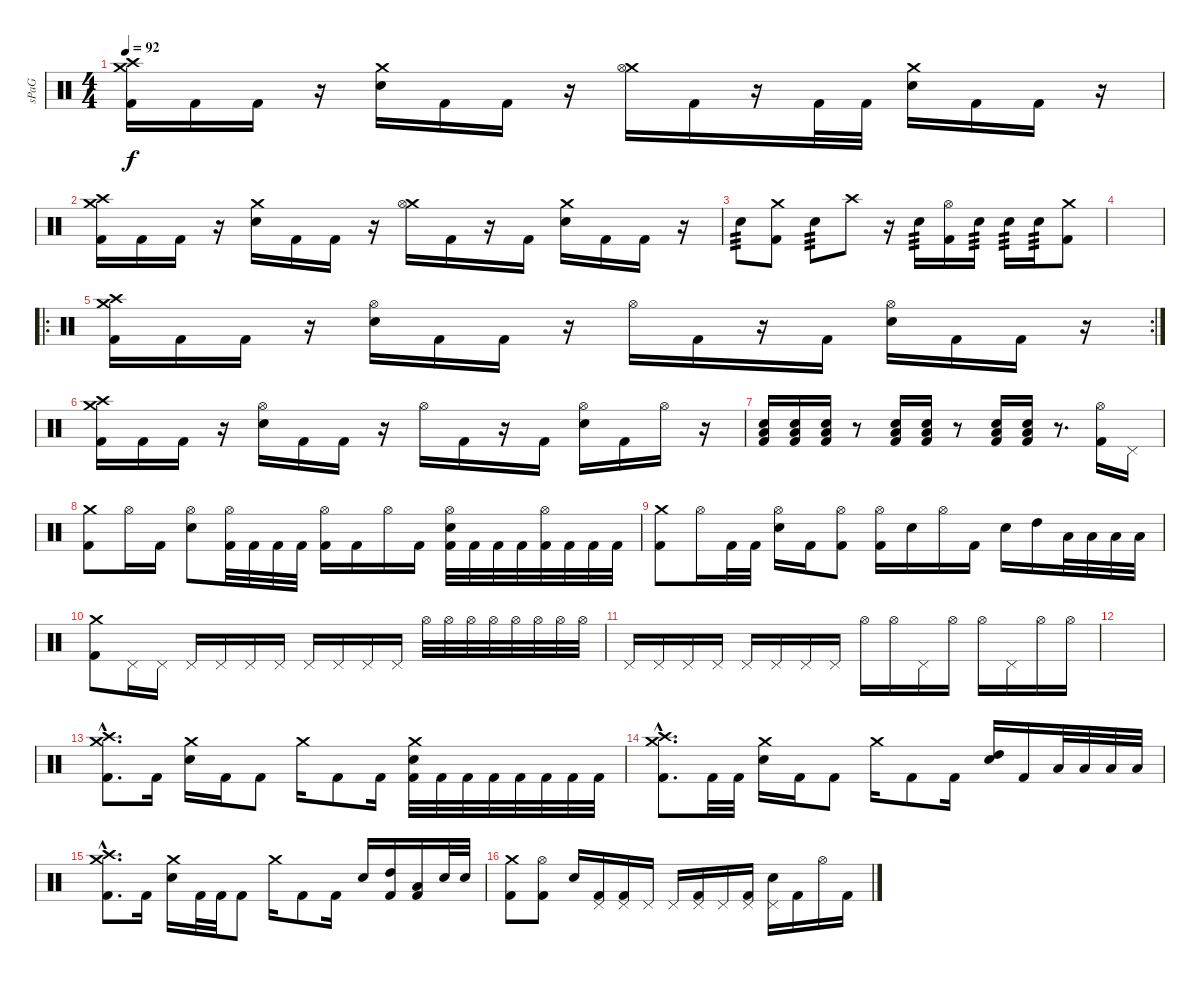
\track ("sPaG" "sPaG") {instrument percussion}
\staff {score}
\articulation defaults
\ts (4 4)
\tempo 92
\clef neutral
\ks c
("Crash medium (hit)" "Crash high (hit)" "Kick (hit) 2").16{dy f} "Kick (hit) 2".16 "Kick (hit) 2".16 r.16 ("Crash medium (hit)" "Snare (hit) 2").16 "Kick (hit) 2".16 "Kick (hit) 2".16 r.16 ("Crash medium (hit)" "Hi-Hat (open)").16 "Kick (hit) 2".16 r.16 "Kick (hit) 2".32 "Kick (hit) 2".32 ("Crash medium (hit)" "Snare (hit) 2").16 "Kick (hit) 2".16 "Kick (hit) 2".16 r.16 |
("Crash medium (hit)" "Crash high (hit)" "Kick (hit) 2").16 "Kick (hit) 2".16 "Kick (hit) 2".16 r.16 ("Crash medium (hit)" "Snare (hit) 2").16 "Kick (hit) 2".16 "Kick (hit) 2".16 r.16 ("Crash medium (hit)" "Hi-Hat (open)").16 "Kick (hit) 2".16 r.16 "Kick (hit) 2".16 ("Crash medium (hit)" "Snare (hit) 2").16 "Kick (hit) 2".16 "Kick (hit) 2".16 r.16 |
"Snare (hit) 2".8{tp 3} ("Crash medium (hit)" "Kick (hit) 2").8 "Snare (hit) 2".8{tp 3} "Crash high (hit)".8 r.16 "Snare (hit) 2".16{tp 3} ("Hi-Hat (open)" "Kick (hit) 2").16 "Snare (hit) 2".16{tp 3} "Snare (hit) 2".16{tp 3} "Snare (hit) 2".16{tp 3} ("Crash medium (hit)" "Kick (hit) 2").8 |
|
\ro
\rc 2
("Crash medium (hit)" "Crash high (hit)" "Kick (hit) 2").16 "Kick (hit) 2".16 "Kick (hit) 2".16 r.16 ("Hi-Hat (open)" "Snare (hit) 2").16 "Kick (hit) 2".16 "Kick (hit) 2".16 r.16 "Hi-Hat (open)".16 "Kick (hit) 2".16 r.16 "Kick (hit) 2".16 ("Hi-Hat (open)" "Snare (hit) 2").16 "Kick (hit) 2".16 "Kick (hit) 2".16 r.16 |
("Crash medium (hit)" "Crash high (hit)" "Kick (hit) 2").16 "Kick (hit) 2".16 "Kick (hit) 2".16 r.16 ("Hi-Hat (open)" "Snare (hit) 2").16 "Kick (hit) 2".16 "Kick (hit) 2".16 r.16 "Hi-Hat (open)".16 "Kick (hit) 2".16 r.16 "Kick (hit) 2".16 ("Hi-Hat (open)" "Snare (hit) 2").16 "Kick (hit) 2".16 "Hi-Hat (open)".16 r.16 |
("Snare (hit) 2" "Low Floor Tom (hit)" "Kick (hit) 2").16 ("Snare (hit) 2" "Low Floor Tom (hit)" "Kick (hit) 2").16 ("Snare (hit) 2" "Low Floor Tom (hit)" "Kick (hit) 2").16 r.8 ("Snare (hit) 2" "Low Floor Tom (hit)" "Kick (hit) 2").16 ("Snare (hit) 2" "Low Floor Tom (hit)" "Kick (hit) 2").16 r.8 ("Snare (hit) 2" "Low Floor Tom (hit)" "Kick (hit) 2").16 ("Snare (hit) 2" "Low Floor Tom (hit)" "Kick (hit) 2").16 r.8{d} ("Hi-Hat (open)" "Kick (hit) 2").16 "Pedal Hi-Hat (hit)".16 |
("Crash medium (hit)" "Kick (hit) 2").8 "Hi-Hat (open)".16 "Kick (hit) 2".16 ("Hi-Hat (open)" "Snare (hit) 2").8 ("Hi-Hat (open)" "Kick (hit) 2").32 "Kick (hit) 2".32 "Kick (hit) 2".32 "Kick (hit) 2".32 ("Hi-Hat (open)" "Kick (hit) 2").16 "Kick (hit) 2".16 "Hi-Hat (open)".16 "Kick (hit) 2".16 ("Hi-Hat (open)" "Snare (hit) 2" "Kick (hit) 2").32 "Kick (hit) 2".32 "Kick (hit) 2".32 "Kick (hit) 2".32 ("Hi-Hat (open)" "Kick (hit) 2").32 "Kick (hit) 2".32 "Kick (hit) 2".32 "Kick (hit) 2".32 |
("Crash medium (hit)" "Kick (hit) 2").8 "Hi-Hat (open)".16 "Kick (hit) 2".32 "Kick (hit) 2".32 ("Hi-Hat (open)" "Snare (hit) 2").16 "Kick (hit) 2".16 ("Hi-Hat (open)" "Kick (hit) 2").8 ("Hi-Hat (open)" "Kick (hit) 2").16 "Snare (hit) 2".16 "Hi-Hat (open)".16 "Kick (hit) 2".16 "Snare (hit) 2".16 "High Tom (hit)".16 "Low Tom (hit)".32 "Low Tom (hit)".32 "Low Tom (hit)".32 "Low Tom (hit)".32 |
("Crash medium (hit)" "Kick (hit) 2").8 "Pedal Hi-Hat (hit)".16 "Pedal Hi-Hat (hit)".16 "Pedal Hi-Hat (hit)".16 "Pedal Hi-Hat (hit)".16 "Pedal Hi-Hat (hit)".16 "Pedal Hi-Hat (hit)".16 "Pedal Hi-Hat (hit)".16 "Pedal Hi-Hat (hit)".16 "Pedal Hi-Hat (hit)".16 "Pedal Hi-Hat (hit)".16 "Hi-Hat (open)".32 "Hi-Hat (open)".32 "Hi-Hat (open)".32 "Hi-Hat (open)".32 "Hi-Hat (open)".32 "Hi-Hat (open)".32 "Hi-Hat (open)".32 "Hi-Hat (open)".32 |
"Pedal Hi-Hat (hit)".16 "Pedal Hi-Hat (hit)".16 "Pedal Hi-Hat (hit)".16 "Pedal Hi-Hat (hit)".16 "Pedal Hi-Hat (hit)".16 "Pedal Hi-Hat (hit)".16 "Pedal Hi-Hat (hit)".16 "Pedal Hi-Hat (hit)".16 "Hi-Hat (open)".16 "Hi-Hat (open)".16 "Pedal Hi-Hat (hit)".16 "Hi-Hat (open)".16 "Hi-Hat (open)".16 "Pedal Hi-Hat (hit)".16 "Hi-Hat (open)".16 "Hi-Hat (open)".16 |
|
("Crash high (hit)"{hac} "Crash medium (hit)"{hac} "Kick (hit) 2"{hac}).8{d} "Kick (hit) 2".16 ("Crash medium (hit)" "Snare (hit) 2").16 "Kick (hit) 2".16 "Kick (hit) 2".8 "Crash medium (hit)".16 "Kick (hit) 2".8 "Kick (hit) 2".16 ("Crash medium (hit)" "Snare (hit) 2" "Kick (hit) 2").32 "Kick (hit) 2".32 "Kick (hit) 2".32 "Kick (hit) 2".32 "Kick (hit) 2".32 "Kick (hit) 2".32 "Kick (hit) 2".32 "Kick (hit) 2".32 |
("Crash high (hit)"{hac} "Crash medium (hit)"{hac} "Kick (hit) 2"{hac}).8{d} "Kick (hit) 2".32 "Kick (hit) 2".32 ("Crash medium (hit)" "Snare (hit) 2").16 "Kick (hit) 2".16 "Kick (hit) 2".8 "Crash medium (hit)".16 "Kick (hit) 2".8 "Kick (hit) 2".16 ("High Tom (hit)" "Snare (hit) 2").16 "Kick (hit) 2".16 "Low Tom (hit)".32 "Low Tom (hit)".32 "Low Tom (hit)".32 "Low Tom (hit)".32 |
("Crash high (hit)"{hac} "Crash medium (hit)"{hac} "Kick (hit) 2"{hac}).8{d} "Kick (hit) 2".16 ("Crash medium (hit)" "Snare (hit) 2").16 "Kick (hit) 2".32 "Kick (hit) 2".32 "Kick (hit) 2".8 "Crash medium (hit)".16 "Kick (hit) 2".8 "Kick (hit) 2".16 "Snare (hit) 2".16 ("High Tom (hit)" "Kick (hit) 2").16 ("Low Tom (hit)" "Kick (hit) 2").16 "Snare (hit) 2".32 "Snare (hit) 2".32 |
("Crash medium (hit)" "Kick (hit) 2").8 ("Hi-Hat (open)" "Kick (hit) 2").8 "Snare (hit) 2".16 ("Pedal Hi-Hat (hit)" "Kick (hit) 2").16 ("Pedal Hi-Hat (hit)" "Kick (hit) 2").16 "Pedal Hi-Hat (hit)".16 "Pedal Hi-Hat (hit)".16 ("Pedal Hi-Hat (hit)" "Kick (hit) 2").16 "Pedal Hi-Hat (hit)".16 ("Pedal Hi-Hat (hit)" "Kick (hit) 2").16 ("Pedal Hi-Hat (hit)" "Snare (hit) 2").16 "Kick (hit) 2".16 "Hi-Hat (open)".16 "Kick (hit) 2".16
